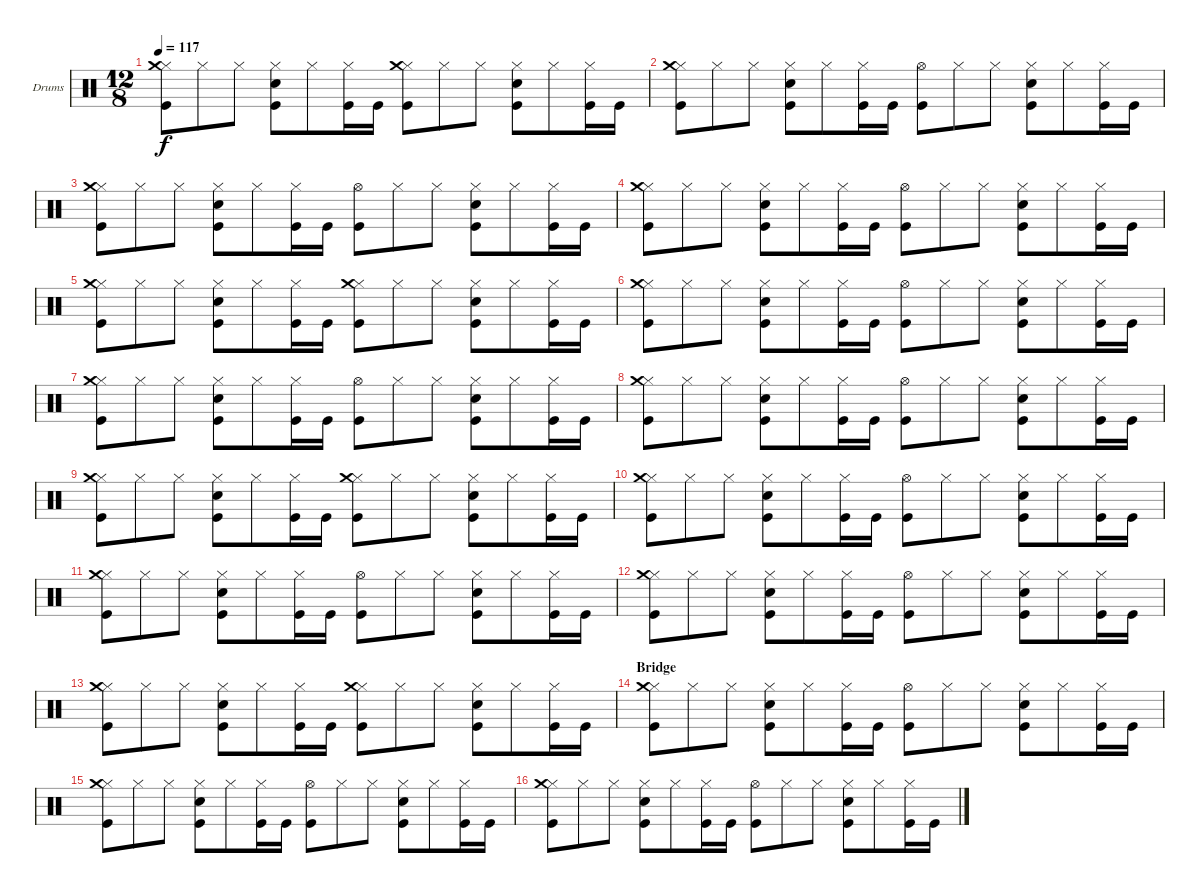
\defaultSystemsLayout 4
\bracketExtendMode groupsimilarinstruments
\firstSystemTrackNameOrientation horizontal
\otherSystemsTrackNameOrientation horizontal
\track ("Drumkit" "Drums") {instrument percussion}
\staff {score}
\articulation defaults
\ts (12 8)
\tempo 117
\clef neutral
\scale
0.333333
\ks c
("Kick (hit)" "Hi-Hat (closed)" "Crash medium (hit)").8{dy f} "Hi-Hat (closed)".8 "Hi-Hat (closed)".8 ("Kick (hit)" "Snare (hit) 2" "Hi-Hat (closed)").8 "Hi-Hat (closed)".8 ("Kick (hit)" "Hi-Hat (closed)").16 "Kick (hit)".16 ("Kick (hit)" "Hi-Hat (closed)" "Crash medium (hit)").8 "Hi-Hat (closed)".8 "Hi-Hat (closed)".8 ("Kick (hit)" "Snare (hit) 2" "Hi-Hat (closed)").8 "Hi-Hat (closed)".8 ("Kick (hit)" "Hi-Hat (closed)").16 "Kick (hit)".16 |
\scale
0.333333 ("Kick (hit)" "Hi-Hat (closed)" "Crash medium (hit)").8 "Hi-Hat (closed)".8 "Hi-Hat (closed)".8 ("Kick (hit)" "Snare (hit) 2" "Hi-Hat (closed)").8 "Hi-Hat (closed)".8 ("Kick (hit)" "Hi-Hat (closed)").16 "Kick (hit)".16 ("Kick (hit)" "Hi-Hat (open)").8 "Hi-Hat (closed)".8 "Hi-Hat (closed)".8 ("Kick (hit)" "Snare (hit) 2" "Hi-Hat (closed)").8 "Hi-Hat (closed)".8 ("Kick (hit)" "Hi-Hat (closed)").16 "Kick (hit)".16 |
\scale
0.333333 ("Kick (hit)" "Hi-Hat (closed)" "Crash medium (hit)").8 "Hi-Hat (closed)".8 "Hi-Hat (closed)".8 ("Kick (hit)" "Snare (hit) 2" "Hi-Hat (closed)").8 "Hi-Hat (closed)".8 ("Kick (hit)" "Hi-Hat (closed)").16 "Kick (hit)".16 ("Kick (hit)" "Hi-Hat (open)").8 "Hi-Hat (closed)".8 "Hi-Hat (closed)".8 ("Kick (hit)" "Snare (hit) 2" "Hi-Hat (closed)").8 "Hi-Hat (closed)".8 ("Kick (hit)" "Hi-Hat (closed)").16 "Kick (hit)".16 |
\scale
0.333333 ("Kick (hit)" "Hi-Hat (closed)" "Crash medium (hit)").8 "Hi-Hat (closed)".8 "Hi-Hat (closed)".8 ("Kick (hit)" "Snare (hit) 2" "Hi-Hat (closed)").8 "Hi-Hat (closed)".8 ("Kick (hit)" "Hi-Hat (closed)").16 "Kick (hit)".16 ("Kick (hit)" "Hi-Hat (open)").8 "Hi-Hat (closed)".8 "Hi-Hat (closed)".8 ("Kick (hit)" "Snare (hit) 2" "Hi-Hat (closed)").8 "Hi-Hat (closed)".8 ("Kick (hit)" "Hi-Hat (closed)").16 "Kick (hit)".16 |
\scale
0.333333 ("Kick (hit)" "Hi-Hat (closed)" "Crash medium (hit)").8 "Hi-Hat (closed)".8 "Hi-Hat (closed)".8 ("Kick (hit)" "Snare (hit) 2" "Hi-Hat (closed)").8 "Hi-Hat (closed)".8 ("Kick (hit)" "Hi-Hat (closed)").16 "Kick (hit)".16 ("Kick (hit)" "Hi-Hat (closed)" "Crash medium (hit)").8 "Hi-Hat (closed)".8 "Hi-Hat (closed)".8 ("Kick (hit)" "Snare (hit) 2" "Hi-Hat (closed)").8 "Hi-Hat (closed)".8 ("Kick (hit)" "Hi-Hat (closed)").16 "Kick (hit)".16 |
\scale
0.333333 ("Kick (hit)" "Hi-Hat (closed)" "Crash medium (hit)").8 "Hi-Hat (closed)".8 "Hi-Hat (closed)".8 ("Kick (hit)" "Snare (hit) 2" "Hi-Hat (closed)").8 "Hi-Hat (closed)".8 ("Kick (hit)" "Hi-Hat (closed)").16 "Kick (hit)".16 ("Kick (hit)" "Hi-Hat (open)").8 "Hi-Hat (closed)".8 "Hi-Hat (closed)".8 ("Kick (hit)" "Snare (hit) 2" "Hi-Hat (closed)").8 "Hi-Hat (closed)".8 ("Kick (hit)" "Hi-Hat (closed)").16 "Kick (hit)".16 |
\scale
0.333333 ("Kick (hit)" "Hi-Hat (closed)" "Crash medium (hit)").8 "Hi-Hat (closed)".8 "Hi-Hat (closed)".8 ("Kick (hit)" "Snare (hit) 2" "Hi-Hat (closed)").8 "Hi-Hat (closed)".8 ("Kick (hit)" "Hi-Hat (closed)").16 "Kick (hit)".16 ("Kick (hit)" "Hi-Hat (open)").8 "Hi-Hat (closed)".8 "Hi-Hat (closed)".8 ("Kick (hit)" "Snare (hit) 2" "Hi-Hat (closed)").8 "Hi-Hat (closed)".8 ("Kick (hit)" "Hi-Hat (closed)").16 "Kick (hit)".16 |
\scale
0.333333 ("Kick (hit)" "Hi-Hat (closed)" "Crash medium (hit)").8 "Hi-Hat (closed)".8 "Hi-Hat (closed)".8 ("Kick (hit)" "Snare (hit) 2" "Hi-Hat (closed)").8 "Hi-Hat (closed)".8 ("Kick (hit)" "Hi-Hat (closed)").16 "Kick (hit)".16 ("Kick (hit)" "Hi-Hat (open)").8 "Hi-Hat (closed)".8 "Hi-Hat (closed)".8 ("Kick (hit)" "Snare (hit) 2" "Hi-Hat (closed)").8 "Hi-Hat (closed)".8 ("Kick (hit)" "Hi-Hat (closed)").16 "Kick (hit)".16 |
\scale
0.333333 ("Kick (hit)" "Hi-Hat (closed)" "Crash medium (hit)").8 "Hi-Hat (closed)".8 "Hi-Hat (closed)".8 ("Kick (hit)" "Snare (hit) 2" "Hi-Hat (closed)").8 "Hi-Hat (closed)".8 ("Kick (hit)" "Hi-Hat (closed)").16 "Kick (hit)".16 ("Kick (hit)" "Hi-Hat (closed)" "Crash medium (hit)").8 "Hi-Hat (closed)".8 "Hi-Hat (closed)".8 ("Kick (hit)" "Snare (hit) 2" "Hi-Hat (closed)").8 "Hi-Hat (closed)".8 ("Kick (hit)" "Hi-Hat (closed)").16 "Kick (hit)".16 |
\scale
0.333333 ("Kick (hit)" "Hi-Hat (closed)" "Crash medium (hit)").8 "Hi-Hat (closed)".8 "Hi-Hat (closed)".8 ("Kick (hit)" "Snare (hit) 2" "Hi-Hat (closed)").8 "Hi-Hat (closed)".8 ("Kick (hit)" "Hi-Hat (closed)").16 "Kick (hit)".16 ("Kick (hit)" "Hi-Hat (open)").8 "Hi-Hat (closed)".8 "Hi-Hat (closed)".8 ("Kick (hit)" "Snare (hit) 2" "Hi-Hat (closed)").8 "Hi-Hat (closed)".8 ("Kick (hit)" "Hi-Hat (closed)").16 "Kick (hit)".16 |
\scale
0.333333 ("Kick (hit)" "Hi-Hat (closed)" "Crash medium (hit)").8 "Hi-Hat (closed)".8 "Hi-Hat (closed)".8 ("Kick (hit)" "Snare (hit) 2" "Hi-Hat (closed)").8 "Hi-Hat (closed)".8 ("Kick (hit)" "Hi-Hat (closed)").16 "Kick (hit)".16 ("Kick (hit)" "Hi-Hat (open)").8 "Hi-Hat (closed)".8 "Hi-Hat (closed)".8 ("Kick (hit)" "Snare (hit) 2" "Hi-Hat (closed)").8 "Hi-Hat (closed)".8 ("Kick (hit)" "Hi-Hat (closed)").16 "Kick (hit)".16 |
\scale
0.333333 ("Kick (hit)" "Hi-Hat (closed)" "Crash medium (hit)").8 "Hi-Hat (closed)".8 "Hi-Hat (closed)".8 ("Kick (hit)" "Snare (hit) 2" "Hi-Hat (closed)").8 "Hi-Hat (closed)".8 ("Kick (hit)" "Hi-Hat (closed)").16 "Kick (hit)".16 ("Kick (hit)" "Hi-Hat (open)").8 "Hi-Hat (closed)".8 "Hi-Hat (closed)".8 ("Kick (hit)" "Snare (hit) 2" "Hi-Hat (closed)").8 "Hi-Hat (closed)".8 ("Kick (hit)" "Hi-Hat (closed)").16 "Kick (hit)".16 |
\scale
0.333333 ("Kick (hit)" "Hi-Hat (closed)" "Crash medium (hit)").8 "Hi-Hat (closed)".8 "Hi-Hat (closed)".8 ("Kick (hit)" "Snare (hit) 2" "Hi-Hat (closed)").8 "Hi-Hat (closed)".8 ("Kick (hit)" "Hi-Hat (closed)").16 "Kick (hit)".16 ("Kick (hit)" "Hi-Hat (closed)" "Crash medium (hit)").8 "Hi-Hat (closed)".8 "Hi-Hat (closed)".8 ("Kick (hit)" "Snare (hit) 2" "Hi-Hat (closed)").8 "Hi-Hat (closed)".8 ("Kick (hit)" "Hi-Hat (closed)").16 "Kick (hit)".16 |
\section ("" "Bridge")
\scale
0.333333 ("Kick (hit)" "Hi-Hat (closed)" "Crash medium (hit)").8 "Hi-Hat (closed)".8 "Hi-Hat (closed)".8 ("Kick (hit)" "Snare (hit) 2" "Hi-Hat (closed)").8 "Hi-Hat (closed)".8 ("Kick (hit)" "Hi-Hat (closed)").16 "Kick (hit)".16 ("Kick (hit)" "Hi-Hat (open)").8 "Hi-Hat (closed)".8 "Hi-Hat (closed)".8 ("Kick (hit)" "Snare (hit) 2" "Hi-Hat (closed)").8 "Hi-Hat (closed)".8 ("Kick (hit)" "Hi-Hat (closed)").16 "Kick (hit)".16 |
\scale
0.333333 ("Kick (hit)" "Hi-Hat (closed)" "Crash medium (hit)").8 "Hi-Hat (closed)".8 "Hi-Hat (closed)".8 ("Kick (hit)" "Snare (hit) 2" "Hi-Hat (closed)").8 "Hi-Hat (closed)".8 ("Kick (hit)" "Hi-Hat (closed)").16 "Kick (hit)".16 ("Kick (hit)" "Hi-Hat (open)").8 "Hi-Hat (closed)".8 "Hi-Hat (closed)".8 ("Kick (hit)" "Snare (hit) 2" "Hi-Hat (closed)").8 "Hi-Hat (closed)".8 ("Kick (hit)" "Hi-Hat (closed)").16 "Kick (hit)".16 |
\scale
0.333333 ("Kick (hit)" "Hi-Hat (closed)" "Crash medium (hit)").8 "Hi-Hat (closed)".8 "Hi-Hat (closed)".8 ("Kick (hit)" "Snare (hit) 2" "Hi-Hat (closed)").8 "Hi-Hat (closed)".8 ("Kick (hit)" "Hi-Hat (closed)").16 "Kick (hit)".16 ("Kick (hit)" "Hi-Hat (open)").8 "Hi-Hat (closed)".8 "Hi-Hat (closed)".8 ("Kick (hit)" "Snare (hit) 2" "Hi-Hat (closed)").8 "Hi-Hat (closed)".8 ("Kick (hit)" "Hi-Hat (closed)").16 "Kick (hit)".16
